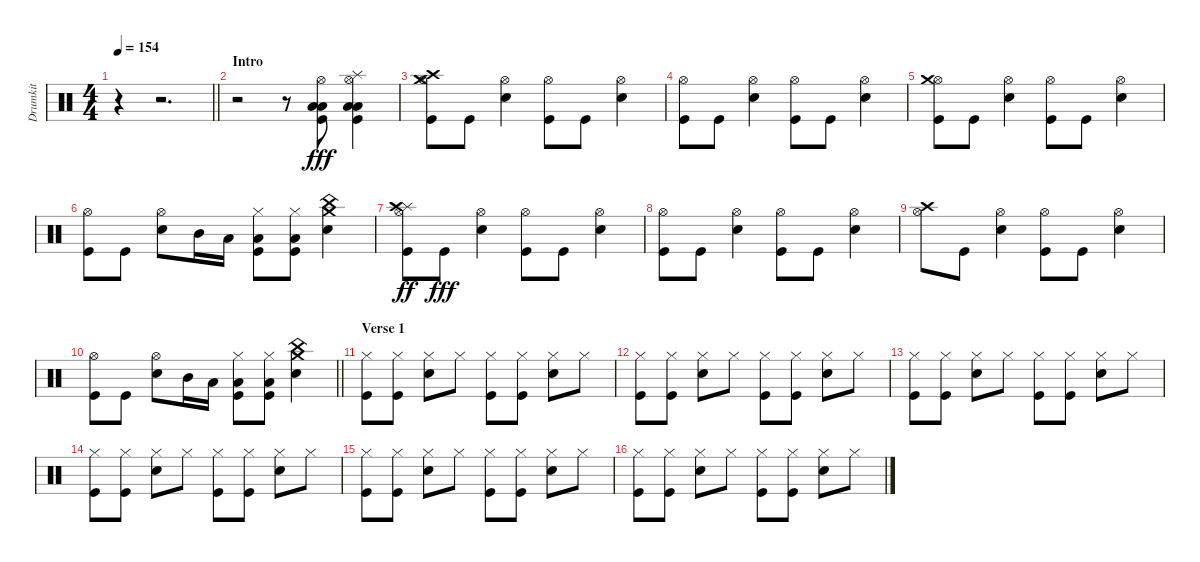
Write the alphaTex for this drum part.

\track ("Drumkit" "Drumkit") {instrument percussion}
\staff {score}
\articulation defaults
\ts (4 4)
\tempo 154
\clef neutral
\barLineRight lightlight
\ks c
r.4{dy fff} r.2{d} |
\section ("" "Intro")
r.2 r.8 ("Hi-Hat (open)" "Low Floor Tom (hit)" "Low Tom (hit)" "Kick (hit)").8 ("Hi-Hat (open)" "Low Floor Tom (hit)" "Low Tom (hit)" "Kick (hit)" "Splash (hit)").4 |
("Crash high (hit)" "Hi-Hat (open)" "Crash medium (hit)" "Kick (hit)").8 "Kick (hit)".8 ("Hi-Hat (open)" "Snare (hit) 2").4 ("Hi-Hat (open)" "Kick (hit)").8 "Kick (hit)".8 ("Hi-Hat (open)" "Snare (hit) 2").4 |
("Hi-Hat (open)" "Kick (hit)").8 "Kick (hit)".8 ("Hi-Hat (open)" "Snare (hit) 2").4 ("Hi-Hat (open)" "Kick (hit)").8 "Kick (hit)".8 ("Hi-Hat (open)" "Snare (hit) 2").4 |
("Hi-Hat (open)" "Crash medium (hit)" "Kick (hit)").8 "Kick (hit)".8 ("Hi-Hat (open)" "Snare (hit) 2").4 ("Hi-Hat (open)" "Kick (hit)").8 "Kick (hit)".8 ("Hi-Hat (open)" "Snare (hit) 2").4 |
("Hi-Hat (open)" "Kick (hit)").8 "Kick (hit)".8 ("Hi-Hat (open)" "Snare (hit) 2").8 "Mid Tom (hit)".16 "Low Tom (hit)".16 ("Hi-Hat (closed)" "Low Floor Tom (hit)" "Kick (hit)").8 ("Hi-Hat (closed)" "Low Floor Tom (hit)" "Kick (hit)").8 ("Crash medium (hit)" "China (hit)" "Snare (hit) 2").4 |
("Splash (hit)" "Hi-Hat (open)" "Crash high (hit)" "Kick (hit)").8{dy ff} "Kick (hit)".8{dy fff} ("Hi-Hat (open)" "Snare (hit) 2").4 ("Hi-Hat (open)" "Kick (hit)").8 "Kick (hit)".8 ("Hi-Hat (open)" "Snare (hit) 2").4 |
("Hi-Hat (open)" "Kick (hit)").8 "Kick (hit)".8 ("Hi-Hat (open)" "Snare (hit) 2").4 ("Hi-Hat (open)" "Kick (hit)").8 "Kick (hit)".8 ("Hi-Hat (open)" "Snare (hit) 2").4 |
("Crash high (hit)" "Hi-Hat (open)").8 "Kick (hit)".8 ("Hi-Hat (open)" "Snare (hit) 2").4 ("Hi-Hat (open)" "Kick (hit)").8 "Kick (hit)".8 ("Hi-Hat (open)" "Snare (hit) 2").4 |
\barLineRight lightlight
("Hi-Hat (open)" "Kick (hit)").8 "Kick (hit)".8 ("Hi-Hat (open)" "Snare (hit) 2").8 "Mid Tom (hit)".16 "Low Tom (hit)".16 ("Hi-Hat (closed)" "Low Floor Tom (hit)" "Kick (hit)").8 ("Hi-Hat (closed)" "Low Floor Tom (hit)" "Kick (hit)").8 ("Crash medium (hit)" "China (hit)" "Snare (hit) 2").4 |
\section ("" "Verse 1")
("Hi-Hat (closed)" "Kick (hit)").8 ("Hi-Hat (closed)" "Kick (hit)").8 ("Hi-Hat (closed)" "Snare (hit) 2").8 "Hi-Hat (closed)".8 ("Hi-Hat (closed)" "Kick (hit)").8 ("Hi-Hat (closed)" "Kick (hit)").8 ("Hi-Hat (closed)" "Snare (hit) 2").8 "Hi-Hat (closed)".8 |
("Hi-Hat (closed)" "Kick (hit)").8 ("Hi-Hat (closed)" "Kick (hit)").8 ("Hi-Hat (closed)" "Snare (hit) 2").8 "Hi-Hat (closed)".8 ("Hi-Hat (closed)" "Kick (hit)").8 ("Hi-Hat (closed)" "Kick (hit)").8 ("Hi-Hat (closed)" "Snare (hit) 2").8 "Hi-Hat (closed)".8 |
("Hi-Hat (closed)" "Kick (hit)").8 ("Hi-Hat (closed)" "Kick (hit)").8 ("Hi-Hat (closed)" "Snare (hit) 2").8 "Hi-Hat (closed)".8 ("Hi-Hat (closed)" "Kick (hit)").8 ("Hi-Hat (closed)" "Kick (hit)").8 ("Hi-Hat (closed)" "Snare (hit) 2").8 "Hi-Hat (closed)".8 |
("Hi-Hat (closed)" "Kick (hit)").8 ("Hi-Hat (closed)" "Kick (hit)").8 ("Hi-Hat (closed)" "Snare (hit) 2").8 "Hi-Hat (closed)".8 ("Hi-Hat (closed)" "Kick (hit)").8 ("Hi-Hat (closed)" "Kick (hit)").8 ("Hi-Hat (closed)" "Snare (hit) 2").8 "Hi-Hat (closed)".8 |
("Hi-Hat (closed)" "Kick (hit)").8 ("Hi-Hat (closed)" "Kick (hit)").8 ("Hi-Hat (closed)" "Snare (hit) 2").8 "Hi-Hat (closed)".8 ("Hi-Hat (closed)" "Kick (hit)").8 ("Hi-Hat (closed)" "Kick (hit)").8 ("Hi-Hat (closed)" "Snare (hit) 2").8 "Hi-Hat (closed)".8 |
("Hi-Hat (closed)" "Kick (hit)").8 ("Hi-Hat (closed)" "Kick (hit)").8 ("Hi-Hat (closed)" "Snare (hit) 2").8 "Hi-Hat (closed)".8 ("Hi-Hat (closed)" "Kick (hit)").8 ("Hi-Hat (closed)" "Kick (hit)").8 ("Hi-Hat (closed)" "Snare (hit) 2").8 "Hi-Hat (closed)".8
